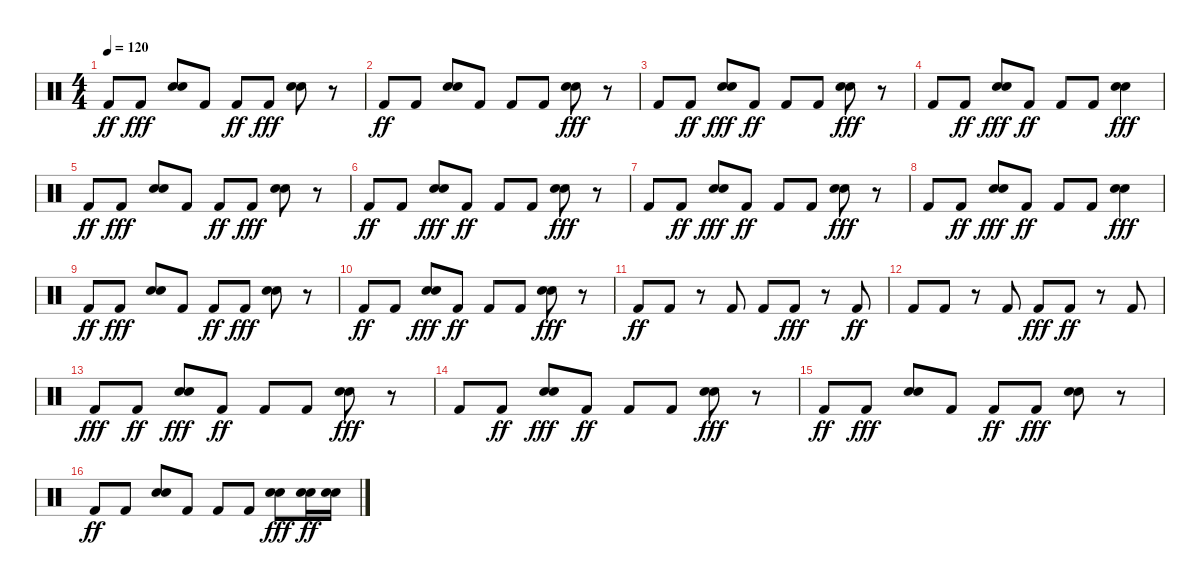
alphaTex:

\track "" {instrument percussion}
\staff {score}
\articulation defaults
\ts (4 4)
\tempo 120
\clef neutral
\ks c "Kick (hit) 2".8{dy ff} "Kick (hit) 2".8{dy fff}
("Electric Snare (hit)" "Snare (hit) 2").8 "Kick (hit) 2".8 "Kick (hit) 2".8{dy ff} "Kick (hit) 2".8{dy fff} ("Snare (hit) 2" "Electric Snare (hit)").8 r.8 |
"Kick (hit) 2".8{dy ff} "Kick (hit) 2".8 ("Snare (hit) 2" "Electric Snare (hit)").8 "Kick (hit) 2".8 "Kick (hit) 2".8 "Kick (hit) 2".8 ("Electric Snare (hit)" "Snare (hit) 2").8{dy fff} r.8 |
"Kick (hit) 2".8 "Kick (hit) 2".8{dy ff} ("Electric Snare (hit)" "Snare (hit) 2").8{dy fff} "Kick (hit) 2".8{dy ff} "Kick (hit) 2".8 "Kick (hit) 2".8 ("Electric Snare (hit)" "Snare (hit) 2").8{dy fff} r.8 |
"Kick (hit) 2".8 "Kick (hit) 2".8{dy ff} ("Electric Snare (hit)" "Snare (hit) 2").8{dy fff} "Kick (hit) 2".8{dy ff} "Kick (hit) 2".8 "Kick (hit) 2".8 ("Electric Snare (hit)" "Snare (hit) 2").4{dy fff} |
"Kick (hit) 2".8{dy ff} "Kick (hit) 2".8{dy fff} ("Snare (hit) 2" "Electric Snare (hit)").8 "Kick (hit) 2".8 "Kick (hit) 2".8{dy ff} "Kick (hit) 2".8{dy fff} ("Snare (hit) 2" "Electric Snare (hit)").8 r.8 |
"Kick (hit) 2".8{dy ff} "Kick (hit) 2".8 ("Electric Snare (hit)" "Snare (hit) 2").8{dy fff} "Kick (hit) 2".8{dy ff} "Kick (hit) 2".8 "Kick (hit) 2".8 ("Snare (hit) 2" "Electric Snare (hit)").8{dy fff} r.8 |
"Kick (hit) 2".8 "Kick (hit) 2".8{dy ff} ("Electric Snare (hit)" "Snare (hit) 2").8{dy fff} "Kick (hit) 2".8{dy ff} "Kick (hit) 2".8 "Kick (hit) 2".8 ("Electric Snare (hit)" "Snare (hit) 2").8{dy fff} r.8 |
"Kick (hit) 2".8 "Kick (hit) 2".8{dy ff} ("Electric Snare (hit)" "Snare (hit) 2").8{dy fff} "Kick (hit) 2".8{dy ff} "Kick (hit) 2".8 "Kick (hit) 2".8 ("Electric Snare (hit)" "Snare (hit) 2").4{dy fff} |
"Kick (hit) 2".8{dy ff} "Kick (hit) 2".8{dy fff} ("Snare (hit) 2" "Electric Snare (hit)").8 "Kick (hit) 2".8 "Kick (hit) 2".8{dy ff} "Kick (hit) 2".8{dy fff} ("Snare (hit) 2" "Electric Snare (hit)").8 r.8 |
"Kick (hit) 2".8{dy ff} "Kick (hit) 2".8 ("Electric Snare (hit)" "Snare (hit) 2").8{dy fff} "Kick (hit) 2".8{dy ff} "Kick (hit) 2".8 "Kick (hit) 2".8 ("Snare (hit) 2" "Electric Snare (hit)").8{dy fff} r.8 |
"Kick (hit) 2".8{dy ff} "Kick (hit) 2".8 r.8 "Kick (hit) 2".8 "Kick (hit) 2".8 "Kick (hit) 2".8{dy fff} r.8 "Kick (hit) 2".8{dy ff} |
"Kick (hit) 2".8 "Kick (hit) 2".8 r.8 "Kick (hit) 2".8 "Kick (hit) 2".8{dy fff} "Kick (hit) 2".8{dy ff} r.8 "Kick (hit) 2".8 |
"Kick (hit) 2".8{dy fff} "Kick (hit) 2".8{dy ff} ("Electric Snare (hit)" "Snare (hit) 2").8{dy fff} "Kick (hit) 2".8{dy ff} "Kick (hit) 2".8 "Kick (hit) 2".8 ("Electric Snare (hit)" "Snare (hit) 2").8{dy fff} r.8 |
"Kick (hit) 2".8 "Kick (hit) 2".8{dy ff} ("Electric Snare (hit)" "Snare (hit) 2").8{dy fff} "Kick (hit) 2".8{dy ff} "Kick (hit) 2".8 "Kick (hit) 2".8 ("Snare (hit) 2" "Electric Snare (hit)").8{dy fff} r.8 |
"Kick (hit) 2".8{dy ff} "Kick (hit) 2".8{dy fff} ("Electric Snare (hit)" "Snare (hit) 2").8 "Kick (hit) 2".8 "Kick (hit) 2".8{dy ff} "Kick (hit) 2".8{dy fff} ("Snare (hit) 2" "Electric Snare (hit)").8 r.8 |
"Kick (hit) 2".8{dy ff} "Kick (hit) 2".8 ("Snare (hit) 2" "Electric Snare (hit)").8 "Kick (hit) 2".8 "Kick (hit) 2".8 "Kick (hit) 2".8 ("Electric Snare (hit)" "Snare (hit) 2").8{dy fff} ("Electric Snare (hit)" "Snare (hit) 2").16{dy ff} ("Snare (hit) 2" "Electric Snare (hit)").16
